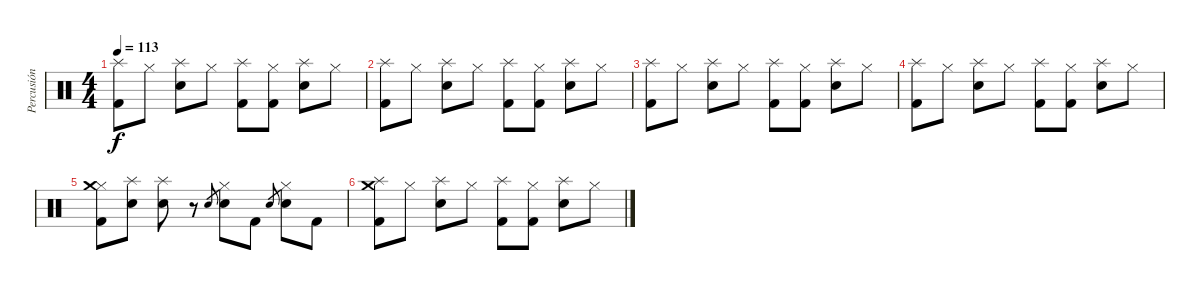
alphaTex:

\track ("Percusión" "Percusión") {instrument percussion}
\staff {score}
\articulation defaults
\ts (4 4)
\tempo 113
\clef neutral
\ks c
("Kick (hit) 2" "Splash (hit)").8{dy f} "Hi-Hat (closed)".8 ("Electric Snare (hit)" "Splash (hit)").8 "Hi-Hat (closed)".8 ("Kick (hit) 2" "Splash (hit)").8 ("Kick (hit) 2" "Hi-Hat (closed)").8 ("Electric Snare (hit)" "Splash (hit)").8 "Hi-Hat (closed)".8 |
("Kick (hit) 2" "Splash (hit)").8{volume 0} "Hi-Hat (closed)".8 ("Electric Snare (hit)" "Splash (hit)").8 "Hi-Hat (closed)".8 ("Kick (hit) 2" "Splash (hit)").8 ("Kick (hit) 2" "Hi-Hat (closed)").8 ("Electric Snare (hit)" "Splash (hit)").8 "Hi-Hat (closed)".8 |
("Kick (hit) 2" "Splash (hit)").8 "Hi-Hat (closed)".8 ("Electric Snare (hit)" "Splash (hit)").8 "Hi-Hat (closed)".8 ("Kick (hit) 2" "Splash (hit)").8 ("Kick (hit) 2" "Hi-Hat (closed)").8 ("Electric Snare (hit)" "Splash (hit)").8 "Hi-Hat (closed)".8 |
("Kick (hit) 2" "Splash (hit)").8 "Hi-Hat (closed)".8 ("Electric Snare (hit)" "Splash (hit)").8 "Hi-Hat (closed)".8 ("Kick (hit) 2" "Splash (hit)").8 ("Kick (hit) 2" "Hi-Hat (closed)").8 ("Electric Snare (hit)" "Splash (hit)").8 "Hi-Hat (closed)".8 |
("Kick (hit) 2" "Hi-Hat (closed)" "Crash medium (hit)").8 ("Electric Snare (hit)" "Splash (hit)").8 ("Electric Snare (hit)" "Splash (hit)").8 r.8 "Electric Snare (hit)".8{gr} ("Electric Snare (hit)" "Hi-Hat (closed)").8 "Kick (hit) 2".8 "Electric Snare (hit)".8{gr} ("Electric Snare (hit)" "Hi-Hat (closed)").8 "Kick (hit) 2".8 |
("Kick (hit) 2" "Splash (hit)" "Crash medium (hit)").8 "Hi-Hat (closed)".8 ("Electric Snare (hit)" "Splash (hit)").8 "Hi-Hat (closed)".8 ("Kick (hit) 2" "Splash (hit)").8 ("Kick (hit) 2" "Hi-Hat (closed)").8 ("Electric Snare (hit)" "Splash (hit)").8 "Hi-Hat (closed)".8
